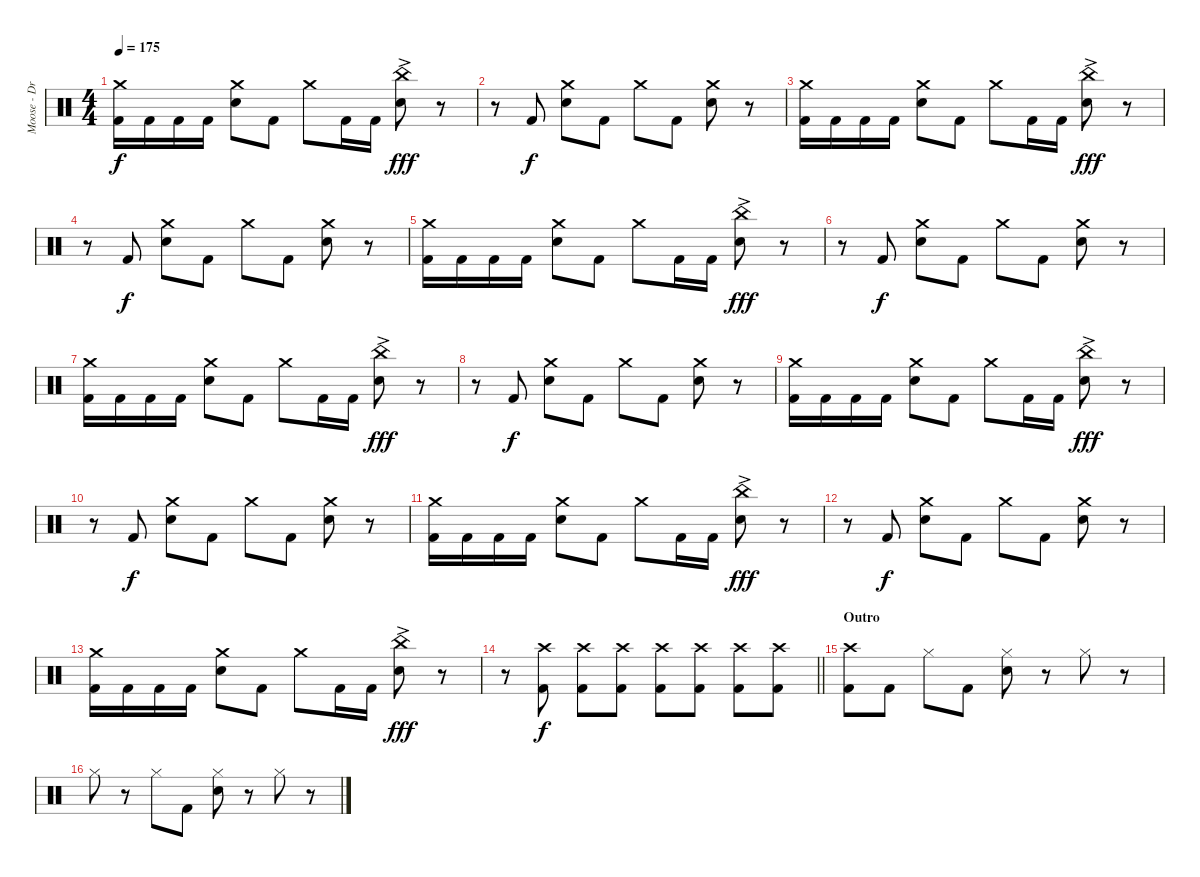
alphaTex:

\track ("Moose - Drums" "Moose - Dr") {instrument percussion}
\staff {score}
\articulation defaults
\ts (4 4)
\tempo 175
\clef neutral
\ks c
("Crash medium (hit)" "Kick (hit) 2").16{dy f} "Kick (hit) 2".16 "Kick (hit) 2".16 "Kick (hit) 2".16 ("Crash medium (hit)" "Electric Snare (hit)").8 "Kick (hit) 2".8 "Crash medium (hit)".8 "Kick (hit) 2".16 "Kick (hit) 2".16 ("China (hit)"{ac} "Electric Snare (hit)").8{dy fff} r.8 |
r.8 "Kick (hit) 2".8{dy f} ("Crash medium (hit)" "Electric Snare (hit)").8 "Kick (hit) 2".8 "Crash medium (hit)".8 "Kick (hit) 2".8 ("Crash medium (hit)" "Electric Snare (hit)").8 r.8 |
("Crash medium (hit)" "Kick (hit) 2").16 "Kick (hit) 2".16 "Kick (hit) 2".16 "Kick (hit) 2".16 ("Crash medium (hit)" "Electric Snare (hit)").8 "Kick (hit) 2".8 "Crash medium (hit)".8 "Kick (hit) 2".16 "Kick (hit) 2".16 ("China (hit)"{ac} "Electric Snare (hit)").8{dy fff} r.8 |
r.8 "Kick (hit) 2".8{dy f} ("Crash medium (hit)" "Electric Snare (hit)").8 "Kick (hit) 2".8 "Crash medium (hit)".8 "Kick (hit) 2".8 ("Crash medium (hit)" "Electric Snare (hit)").8 r.8 |
("Crash medium (hit)" "Kick (hit) 2").16 "Kick (hit) 2".16 "Kick (hit) 2".16 "Kick (hit) 2".16 ("Crash medium (hit)" "Electric Snare (hit)").8 "Kick (hit) 2".8 "Crash medium (hit)".8 "Kick (hit) 2".16 "Kick (hit) 2".16 ("China (hit)"{ac} "Electric Snare (hit)").8{dy fff} r.8 |
r.8 "Kick (hit) 2".8{dy f} ("Crash medium (hit)" "Electric Snare (hit)").8 "Kick (hit) 2".8 "Crash medium (hit)".8 "Kick (hit) 2".8 ("Crash medium (hit)" "Electric Snare (hit)").8 r.8 |
("Crash medium (hit)" "Kick (hit) 2").16 "Kick (hit) 2".16 "Kick (hit) 2".16 "Kick (hit) 2".16 ("Crash medium (hit)" "Electric Snare (hit)").8 "Kick (hit) 2".8 "Crash medium (hit)".8 "Kick (hit) 2".16 "Kick (hit) 2".16 ("China (hit)"{ac} "Electric Snare (hit)").8{dy fff} r.8 |
r.8 "Kick (hit) 2".8{dy f} ("Crash medium (hit)" "Electric Snare (hit)").8 "Kick (hit) 2".8 "Crash medium (hit)".8 "Kick (hit) 2".8 ("Crash medium (hit)" "Electric Snare (hit)").8 r.8 |
("Crash medium (hit)" "Kick (hit) 2").16 "Kick (hit) 2".16 "Kick (hit) 2".16 "Kick (hit) 2".16 ("Crash medium (hit)" "Electric Snare (hit)").8 "Kick (hit) 2".8 "Crash medium (hit)".8 "Kick (hit) 2".16 "Kick (hit) 2".16 ("China (hit)"{ac} "Electric Snare (hit)").8{dy fff} r.8 |
r.8 "Kick (hit) 2".8{dy f} ("Crash medium (hit)" "Electric Snare (hit)").8 "Kick (hit) 2".8 "Crash medium (hit)".8 "Kick (hit) 2".8 ("Crash medium (hit)" "Electric Snare (hit)").8 r.8 |
("Crash medium (hit)" "Kick (hit) 2").16 "Kick (hit) 2".16 "Kick (hit) 2".16 "Kick (hit) 2".16 ("Crash medium (hit)" "Electric Snare (hit)").8 "Kick (hit) 2".8 "Crash medium (hit)".8 "Kick (hit) 2".16 "Kick (hit) 2".16 ("China (hit)"{ac} "Electric Snare (hit)").8{dy fff} r.8 |
r.8 "Kick (hit) 2".8{dy f} ("Crash medium (hit)" "Electric Snare (hit)").8 "Kick (hit) 2".8 "Crash medium (hit)".8 "Kick (hit) 2".8 ("Crash medium (hit)" "Electric Snare (hit)").8 r.8 |
("Crash medium (hit)" "Kick (hit) 2").16 "Kick (hit) 2".16 "Kick (hit) 2".16 "Kick (hit) 2".16 ("Crash medium (hit)" "Electric Snare (hit)").8 "Kick (hit) 2".8 "Crash medium (hit)".8 "Kick (hit) 2".16 "Kick (hit) 2".16 ("China (hit)"{ac} "Electric Snare (hit)").8{dy fff} r.8 |
\barLineRight lightlight
r.8 ("Crash high (hit)" "Kick (hit) 2").8{dy f} ("Crash high (hit)" "Kick (hit) 2").8 ("Crash high (hit)" "Kick (hit) 2").8 ("Crash high (hit)" "Kick (hit) 2").8 ("Crash high (hit)" "Kick (hit) 2").8 ("Crash high (hit)" "Kick (hit) 2").8 ("Crash high (hit)" "Kick (hit) 2").8 |
\section ("" "Outro")
("Crash high (hit)" "Kick (hit) 2").8 "Kick (hit) 2".8 "Hi-Hat (closed)".8 "Kick (hit) 2".8 ("Hi-Hat (closed)" "Electric Snare (hit)").8 r.8 "Hi-Hat (closed)".8 r.8 |
"Hi-Hat (closed)".8 r.8 "Hi-Hat (closed)".8 "Kick (hit) 2".8 ("Hi-Hat (closed)" "Electric Snare (hit)").8 r.8 "Hi-Hat (closed)".8 r.8
